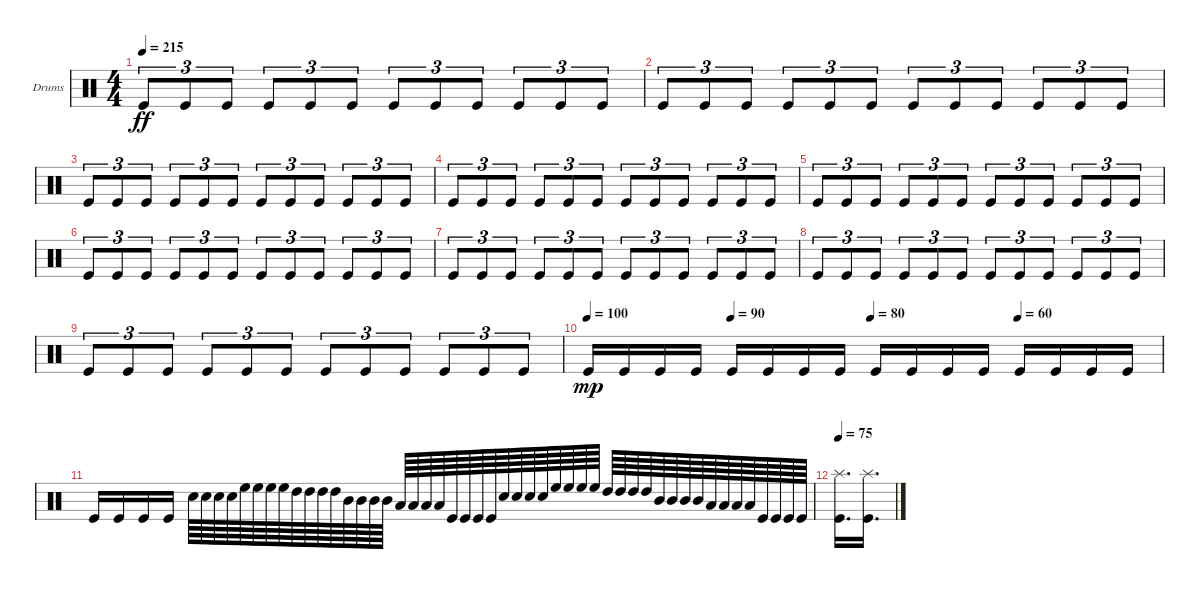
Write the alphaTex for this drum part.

\bracketExtendMode groupsimilarinstruments
\firstSystemTrackNameOrientation horizontal
\otherSystemsTrackNameOrientation horizontal
\track ("Drumkit" "Drums") {instrument percussion}
\staff {score}
\articulation defaults
\ts (4 4)
\tempo 215
\clef neutral
\ks c "Kick (hit)".8{tu (3 2) dy ff} "Kick (hit)".8{tu (3 2)} "Kick (hit)".8{tu (3 2)} "Kick (hit)".8{tu (3 2)} "Kick (hit)".8{tu (3 2)} "Kick (hit)".8{tu (3 2)} "Kick (hit)".8{tu (3 2)} "Kick (hit)".8{tu (3 2)} "Kick (hit)".8{tu (3 2)} "Kick (hit)".8{tu (3 2)} "Kick (hit)".8{tu (3 2)} "Kick (hit)".8{tu (3 2)}
|
"Kick (hit)".8{tu (3 2)} "Kick (hit)".8{tu (3 2)} "Kick (hit)".8{tu (3 2)} "Kick (hit)".8{tu (3 2)} "Kick (hit)".8{tu (3 2)} "Kick (hit)".8{tu (3 2)} "Kick (hit)".8{tu (3 2)} "Kick (hit)".8{tu (3 2)} "Kick (hit)".8{tu (3 2)} "Kick (hit)".8{tu (3 2)} "Kick (hit)".8{tu (3 2)} "Kick (hit)".8{tu (3 2)} |
"Kick (hit)".8{tu (3 2)} "Kick (hit)".8{tu (3 2)} "Kick (hit)".8{tu (3 2)} "Kick (hit)".8{tu (3 2)} "Kick (hit)".8{tu (3 2)} "Kick (hit)".8{tu (3 2)} "Kick (hit)".8{tu (3 2)} "Kick (hit)".8{tu (3 2)} "Kick (hit)".8{tu (3 2)} "Kick (hit)".8{tu (3 2)} "Kick (hit)".8{tu (3 2)} "Kick (hit)".8{tu (3 2)} |
"Kick (hit)".8{tu (3 2)} "Kick (hit)".8{tu (3 2)} "Kick (hit)".8{tu (3 2)} "Kick (hit)".8{tu (3 2)} "Kick (hit)".8{tu (3 2)} "Kick (hit)".8{tu (3 2)} "Kick (hit)".8{tu (3 2)} "Kick (hit)".8{tu (3 2)} "Kick (hit)".8{tu (3 2)} "Kick (hit)".8{tu (3 2)} "Kick (hit)".8{tu (3 2)} "Kick (hit)".8{tu (3 2)} |
"Kick (hit)".8{tu (3 2)} "Kick (hit)".8{tu (3 2)} "Kick (hit)".8{tu (3 2)} "Kick (hit)".8{tu (3 2)} "Kick (hit)".8{tu (3 2)} "Kick (hit)".8{tu (3 2)} "Kick (hit)".8{tu (3 2)} "Kick (hit)".8{tu (3 2)} "Kick (hit)".8{tu (3 2)} "Kick (hit)".8{tu (3 2)} "Kick (hit)".8{tu (3 2)} "Kick (hit)".8{tu (3 2)} |
"Kick (hit)".8{tu (3 2)} "Kick (hit)".8{tu (3 2)} "Kick (hit)".8{tu (3 2)} "Kick (hit)".8{tu (3 2)} "Kick (hit)".8{tu (3 2)} "Kick (hit)".8{tu (3 2)} "Kick (hit)".8{tu (3 2)} "Kick (hit)".8{tu (3 2)} "Kick (hit)".8{tu (3 2)} "Kick (hit)".8{tu (3 2)} "Kick (hit)".8{tu (3 2)} "Kick (hit)".8{tu (3 2)} |
"Kick (hit)".8{tu (3 2)} "Kick (hit)".8{tu (3 2)} "Kick (hit)".8{tu (3 2)} "Kick (hit)".8{tu (3 2)} "Kick (hit)".8{tu (3 2)} "Kick (hit)".8{tu (3 2)} "Kick (hit)".8{tu (3 2)} "Kick (hit)".8{tu (3 2)} "Kick (hit)".8{tu (3 2)} "Kick (hit)".8{tu (3 2)} "Kick (hit)".8{tu (3 2)} "Kick (hit)".8{tu (3 2)} |
"Kick (hit)".8{tu (3 2)} "Kick (hit)".8{tu (3 2)} "Kick (hit)".8{tu (3 2)} "Kick (hit)".8{tu (3 2)} "Kick (hit)".8{tu (3 2)} "Kick (hit)".8{tu (3 2)} "Kick (hit)".8{tu (3 2)} "Kick (hit)".8{tu (3 2)} "Kick (hit)".8{tu (3 2)} "Kick (hit)".8{tu (3 2)} "Kick (hit)".8{tu (3 2)} "Kick (hit)".8{tu (3 2)} |
"Kick (hit)".8{tu (3 2)} "Kick (hit)".8{tu (3 2)} "Kick (hit)".8{tu (3 2)} "Kick (hit)".8{tu (3 2)} "Kick (hit)".8{tu (3 2)} "Kick (hit)".8{tu (3 2)} "Kick (hit)".8{tu (3 2)} "Kick (hit)".8{tu (3 2)} "Kick (hit)".8{tu (3 2)} "Kick (hit)".8{tu (3 2)} "Kick (hit)".8{tu (3 2)} "Kick (hit)".8{tu (3 2)} |
\tempo 100
\tempo (90 0.25)
\tempo (80 0.49375)
\tempo (60 0.75)
"Kick (hit)".16{dy mp} "Kick (hit)".16 "Kick (hit)".16 "Kick (hit)".16 "Kick (hit)".16 "Kick (hit)".16 "Kick (hit)".16 "Kick (hit)".16 "Kick (hit)".16 "Kick (hit)".16 "Kick (hit)".16 "Kick (hit)".16 "Kick (hit)".16 "Kick (hit)".16 "Kick (hit)".16 "Kick (hit)".16 |
"Kick (hit)".16 "Kick (hit)".16 "Kick (hit)".16 "Kick (hit)".16 "Snare (hit) 2".64 "Snare (hit) 2".64 "Snare (hit) 2".64 "Snare (hit) 2".64 "High Floor Tom (hit)".64 "High Floor Tom (hit)".64 "High Floor Tom (hit)".64 "High Floor Tom (hit)".64 "High Tom (hit)".64 "High Tom (hit)".64 "High Tom (hit)".64 "High Tom (hit)".64 "Mid Tom (hit)".64 "Mid Tom (hit)".64 "Mid Tom (hit)".64 "Mid Tom (hit)".64 "Low Tom (hit)".64 "Low Tom (hit)".64 "Low Tom (hit)".64 "Low Tom (hit)".64 "Kick (hit)".64 "Kick (hit)".64 "Kick (hit)".64 "Kick (hit)".64 "Snare (hit) 2".64 "Snare (hit) 2".64 "Snare (hit) 2".64 "Snare (hit) 2".64 "High Floor Tom (hit)".64 "High Floor Tom (hit)".64 "High Floor Tom (hit)".64 "High Floor Tom (hit)".64 "High Tom (hit)".64 "High Tom (hit)".64 "High Tom (hit)".64 "High Tom (hit)".64 "Mid Tom (hit)".64 "Mid Tom (hit)".64 "Mid Tom (hit)".64 "Mid Tom (hit)".64 "Low Tom (hit)".64 "Low Tom (hit)".64 "Low Tom (hit)".64 "Low Tom (hit)".64 "Kick (hit)".64 "Kick (hit)".64 "Kick (hit)".64 "Kick (hit)".64 |
\tempo 75
("Kick (hit)" "Splash (hit)").16{d} ("Kick (hit)" "Splash (hit)").16{d}
